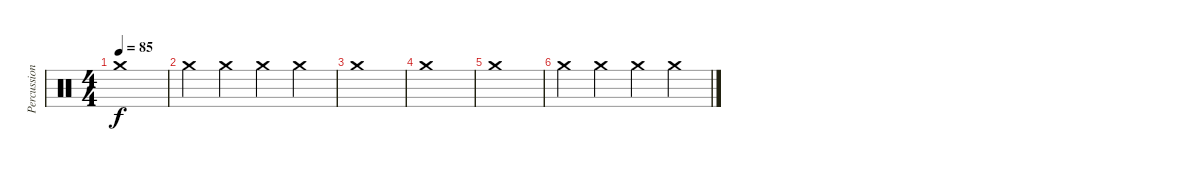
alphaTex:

\track ("Percussion" "Percussion") {instrument percussion}
\staff {score}
\articulation defaults
\ts (4 4)
\tempo 85
\clef neutral
\ks c "Crash medium (hit)".1{dy f}
|
"Crash medium (hit)".4 "Crash medium (hit)".4 "Crash medium (hit)".4 "Crash medium (hit)".4 |
"Crash medium (hit)".1 |
"Crash medium (hit)".1 |
"Crash medium (hit)".1 |
"Crash medium (hit)".4 "Crash medium (hit)".4 "Crash medium (hit)".4 "Crash medium (hit)".4
